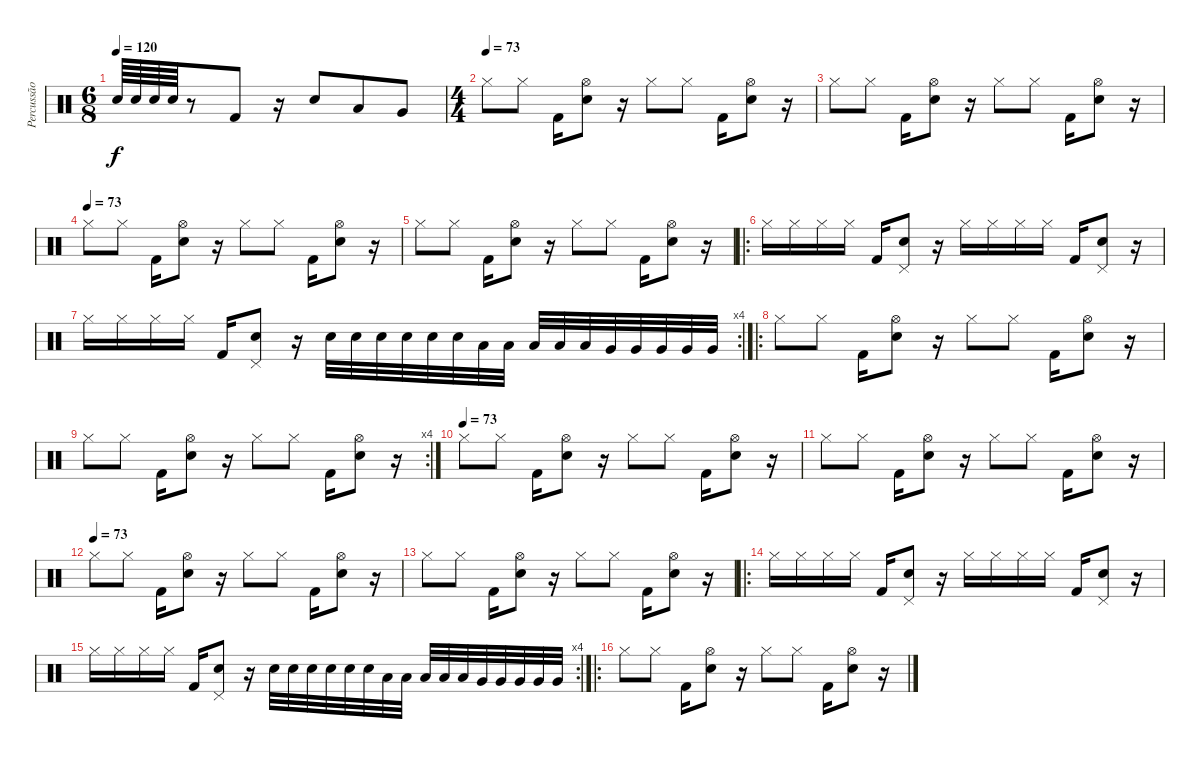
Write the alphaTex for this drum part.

\track ("Percussão" "Percussão") {instrument percussion}
\staff {score}
\articulation defaults
\ts (6 8)
\tempo 120
\clef neutral
\ks c "Snare (hit) 2".64{dy f} "Snare (hit) 2".64 "Snare (hit) 2".64 "Snare (hit) 2".64
r.8 "Kick (hit) 2".8 r.16 "Snare (hit) 2".8 "Low Tom (hit)".8 "Very Low Tom (hit)".8 |
\ts (4 4)
\tempo (73)
"Hi-Hat (closed)".8 "Hi-Hat (closed)".8 "Kick (hit) 2".16 ("Snare (hit) 2" "Hi-Hat (open)").8 r.16 "Hi-Hat (closed)".8 "Hi-Hat (closed)".8 "Kick (hit) 2".16 ("Snare (hit) 2" "Hi-Hat (open)").8 r.16 |
"Hi-Hat (closed)".8 "Hi-Hat (closed)".8 "Kick (hit) 2".16 ("Snare (hit) 2" "Hi-Hat (open)").8 r.16 "Hi-Hat (closed)".8 "Hi-Hat (closed)".8 "Kick (hit) 2".16 ("Snare (hit) 2" "Hi-Hat (open)").8 r.16 |
\tempo (73)
"Hi-Hat (closed)".8 "Hi-Hat (closed)".8 "Kick (hit) 2".16 ("Snare (hit) 2" "Hi-Hat (open)").8 r.16 "Hi-Hat (closed)".8 "Hi-Hat (closed)".8 "Kick (hit) 2".16 ("Snare (hit) 2" "Hi-Hat (open)").8 r.16 |
"Hi-Hat (closed)".8 "Hi-Hat (closed)".8 "Kick (hit) 2".16 ("Snare (hit) 2" "Hi-Hat (open)").8 r.16 "Hi-Hat (closed)".8 "Hi-Hat (closed)".8 "Kick (hit) 2".16 ("Snare (hit) 2" "Hi-Hat (open)").8 r.16 |
\ro "Hi-Hat (closed)".16 "Hi-Hat (closed)".16 "Hi-Hat (closed)".16 "Hi-Hat (closed)".16 "Kick (hit) 2".16
("Snare (hit) 2" "Pedal Hi-Hat (hit)").8 r.16 "Hi-Hat (closed)".16 "Hi-Hat (closed)".16 "Hi-Hat (closed)".16 "Hi-Hat (closed)".16 "Kick (hit) 2".16 ("Snare (hit) 2" "Pedal Hi-Hat (hit)").8 r.16 |
\rc 4 "Hi-Hat (closed)".16 "Hi-Hat (closed)".16 "Hi-Hat (closed)".16 "Hi-Hat (closed)".16 "Kick (hit) 2".16
("Snare (hit) 2" "Pedal Hi-Hat (hit)").8 r.16 "Snare (hit) 2".32 "Snare (hit) 2".32 "Snare (hit) 2".32 "Snare (hit) 2".32 "Snare (hit) 2".32 "Snare (hit) 2".32 "Low Tom (hit)".32 "Low Tom (hit)".32 "Low Tom (hit)".32 "Low Tom (hit)".32 "Low Tom (hit)".32 "Very Low Tom (hit)".32 "Very Low Tom (hit)".32 "Very Low Tom (hit)".32 "Very Low Tom (hit)".32 "Very Low Tom (hit)".32 |
\ro "Hi-Hat (closed)".8 "Hi-Hat (closed)".8 "Kick (hit) 2".16
("Snare (hit) 2" "Hi-Hat (open)").8 r.16 "Hi-Hat (closed)".8 "Hi-Hat (closed)".8 "Kick (hit) 2".16 ("Snare (hit) 2" "Hi-Hat (open)").8 r.16 |
\rc 4 "Hi-Hat (closed)".8 "Hi-Hat (closed)".8 "Kick (hit) 2".16
("Snare (hit) 2" "Hi-Hat (open)").8 r.16 "Hi-Hat (closed)".8 "Hi-Hat (closed)".8 "Kick (hit) 2".16 ("Snare (hit) 2" "Hi-Hat (open)").8 r.16 |
\tempo (73)
"Hi-Hat (closed)".8 "Hi-Hat (closed)".8 "Kick (hit) 2".16 ("Snare (hit) 2" "Hi-Hat (open)").8 r.16 "Hi-Hat (closed)".8 "Hi-Hat (closed)".8 "Kick (hit) 2".16 ("Snare (hit) 2" "Hi-Hat (open)").8 r.16 |
"Hi-Hat (closed)".8 "Hi-Hat (closed)".8 "Kick (hit) 2".16 ("Snare (hit) 2" "Hi-Hat (open)").8 r.16 "Hi-Hat (closed)".8 "Hi-Hat (closed)".8 "Kick (hit) 2".16 ("Snare (hit) 2" "Hi-Hat (open)").8 r.16 |
\tempo (73)
"Hi-Hat (closed)".8 "Hi-Hat (closed)".8 "Kick (hit) 2".16 ("Snare (hit) 2" "Hi-Hat (open)").8 r.16 "Hi-Hat (closed)".8 "Hi-Hat (closed)".8 "Kick (hit) 2".16 ("Snare (hit) 2" "Hi-Hat (open)").8 r.16 |
"Hi-Hat (closed)".8 "Hi-Hat (closed)".8 "Kick (hit) 2".16 ("Snare (hit) 2" "Hi-Hat (open)").8 r.16 "Hi-Hat (closed)".8 "Hi-Hat (closed)".8 "Kick (hit) 2".16 ("Snare (hit) 2" "Hi-Hat (open)").8 r.16 |
\ro "Hi-Hat (closed)".16 "Hi-Hat (closed)".16 "Hi-Hat (closed)".16 "Hi-Hat (closed)".16 "Kick (hit) 2".16
("Snare (hit) 2" "Pedal Hi-Hat (hit)").8 r.16 "Hi-Hat (closed)".16 "Hi-Hat (closed)".16 "Hi-Hat (closed)".16 "Hi-Hat (closed)".16 "Kick (hit) 2".16 ("Snare (hit) 2" "Pedal Hi-Hat (hit)").8 r.16 |
\rc 4 "Hi-Hat (closed)".16 "Hi-Hat (closed)".16 "Hi-Hat (closed)".16 "Hi-Hat (closed)".16 "Kick (hit) 2".16
("Snare (hit) 2" "Pedal Hi-Hat (hit)").8 r.16 "Snare (hit) 2".32 "Snare (hit) 2".32 "Snare (hit) 2".32 "Snare (hit) 2".32 "Snare (hit) 2".32 "Snare (hit) 2".32 "Low Tom (hit)".32 "Low Tom (hit)".32 "Low Tom (hit)".32 "Low Tom (hit)".32 "Low Tom (hit)".32 "Very Low Tom (hit)".32 "Very Low Tom (hit)".32 "Very Low Tom (hit)".32 "Very Low Tom (hit)".32 "Very Low Tom (hit)".32 |
\ro "Hi-Hat (closed)".8 "Hi-Hat (closed)".8 "Kick (hit) 2".16
("Snare (hit) 2" "Hi-Hat (open)").8 r.16 "Hi-Hat (closed)".8 "Hi-Hat (closed)".8 "Kick (hit) 2".16 ("Snare (hit) 2" "Hi-Hat (open)").8 r.16
